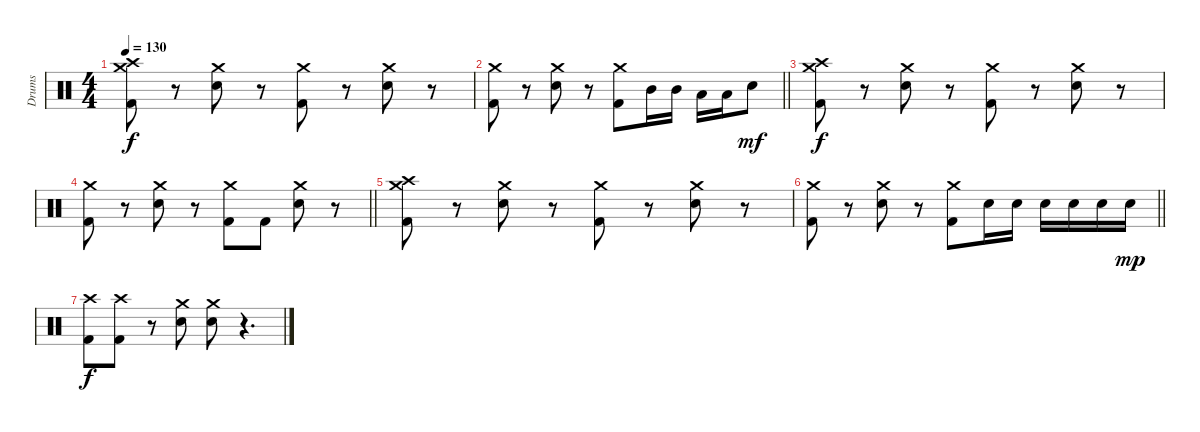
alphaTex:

\track ("Drums" "Drums") {instrument percussion}
\staff {score}
\articulation defaults
\ts (4 4)
\tempo 130
\clef neutral
\ks c
("Crash medium (hit)" "Crash high (hit)" "Kick (hit) 2").8{dy f} r.8 ("Crash medium (hit)" "Electric Snare (hit)").8 r.8 ("Crash medium (hit)" "Kick (hit) 2").8 r.8 ("Crash medium (hit)" "Electric Snare (hit)").8 r.8 |
\barLineRight lightlight
("Crash medium (hit)" "Kick (hit) 2").8 r.8 ("Crash medium (hit)" "Electric Snare (hit)").8 r.8 ("Crash medium (hit)" "Kick (hit) 2").8 "Mid Tom (hit)".16 "Mid Tom (hit)".16 "Low Tom (hit)".16 "Low Tom (hit)".16 "Electric Snare (hit)".8{dy mf} |
("Crash medium (hit)" "Crash high (hit)" "Kick (hit) 2").8{dy f} r.8 ("Crash medium (hit)" "Electric Snare (hit)").8 r.8 ("Crash medium (hit)" "Kick (hit) 2").8 r.8 ("Crash medium (hit)" "Electric Snare (hit)").8 r.8 |
\barLineRight lightlight
("Crash medium (hit)" "Kick (hit) 2").8 r.8 ("Crash medium (hit)" "Electric Snare (hit)").8 r.8 ("Crash medium (hit)" "Kick (hit) 2").8 "Kick (hit) 2".8 ("Crash medium (hit)" "Electric Snare (hit)").8 r.8 |
("Crash medium (hit)" "Crash high (hit)" "Kick (hit) 2").8 r.8 ("Crash medium (hit)" "Electric Snare (hit)").8 r.8 ("Crash medium (hit)" "Kick (hit) 2").8 r.8 ("Crash medium (hit)" "Electric Snare (hit)").8 r.8 |
\barLineRight lightlight
("Crash medium (hit)" "Kick (hit) 2").8 r.8 ("Crash medium (hit)" "Electric Snare (hit)").8 r.8 ("Crash medium (hit)" "Kick (hit) 2").8 "Electric Snare (hit)".16 "Electric Snare (hit)".16 "Electric Snare (hit)".16 "Electric Snare (hit)".16 "Electric Snare (hit)".16 "Electric Snare (hit)".16{dy mp} |
("Crash high (hit)" "Kick (hit) 2").8{dy f} ("Crash high (hit)" "Kick (hit) 2").8 r.8 ("Crash medium (hit)" "Electric Snare (hit)").8 ("Crash medium (hit)" "Electric Snare (hit)").8 r.4{d}
